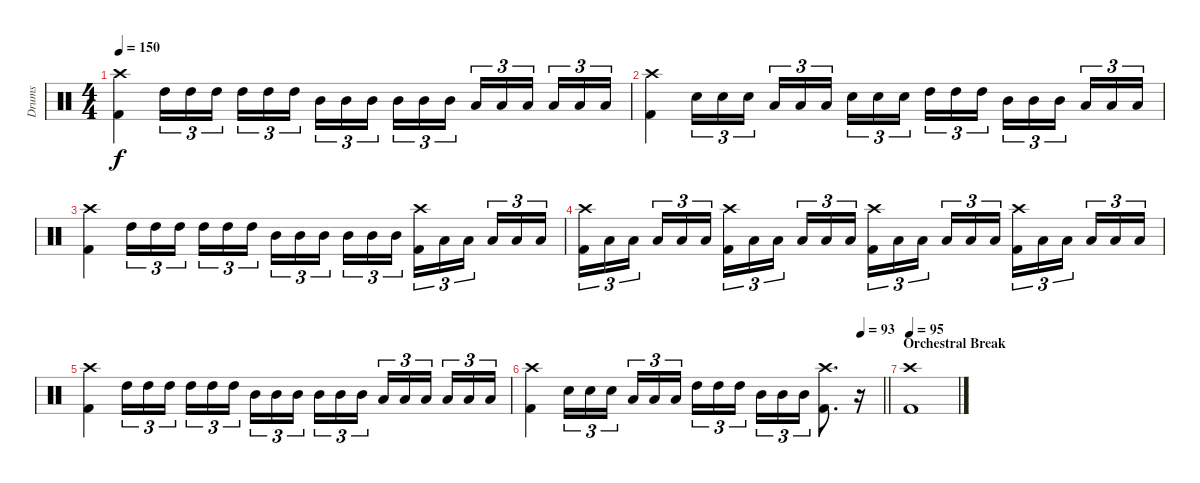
\track ("Drums" "Drums") {instrument percussion}
\staff {score}
\articulation defaults
\ts (4 4)
\tempo 150
\clef neutral
\ks c
("Crash high (hit)" "Kick (hit) 2").4{dy f} "High Tom (hit)".16{tu (3 2)} "High Tom (hit)".16{tu (3 2)} "High Tom (hit)".16{tu (3 2) beam splitsecondary} "High Tom (hit)".16{tu (3 2)} "High Tom (hit)".16{tu (3 2)} "High Tom (hit)".16{tu (3 2)} "Mid Tom (hit)".16{tu (3 2)} "Mid Tom (hit)".16{tu (3 2)} "Mid Tom (hit)".16{tu (3 2) beam splitsecondary} "Mid Tom (hit)".16{tu (3 2)} "Mid Tom (hit)".16{tu (3 2)} "Mid Tom (hit)".16{tu (3 2)} "Low Floor Tom (hit)".16{tu (3 2)} "Low Floor Tom (hit)".16{tu (3 2)} "Low Floor Tom (hit)".16{tu (3 2) beam splitsecondary} "Low Floor Tom (hit)".16{tu (3 2)} "Low Floor Tom (hit)".16{tu (3 2)} "Low Floor Tom (hit)".16{tu (3 2)} |
("Crash high (hit)" "Kick (hit) 2").4 "Electric Snare (hit)".16{tu (3 2)} "Electric Snare (hit)".16{tu (3 2)} "Electric Snare (hit)".16{tu (3 2) beam splitsecondary} "Low Tom (hit)".16{tu (3 2)} "Low Tom (hit)".16{tu (3 2)} "Low Tom (hit)".16{tu (3 2)} "Electric Snare (hit)".16{tu (3 2)} "Electric Snare (hit)".16{tu (3 2)} "Electric Snare (hit)".16{tu (3 2) beam splitsecondary} "High Tom (hit)".16{tu (3 2)} "High Tom (hit)".16{tu (3 2)} "High Tom (hit)".16{tu (3 2)} "Mid Tom (hit)".16{tu (3 2)} "Mid Tom (hit)".16{tu (3 2)} "Mid Tom (hit)".16{tu (3 2) beam splitsecondary} "Low Tom (hit)".16{tu (3 2)} "Low Tom (hit)".16{tu (3 2)} "Low Tom (hit)".16{tu (3 2)} |
("Crash high (hit)" "Kick (hit) 2").4 "High Tom (hit)".16{tu (3 2)} "High Tom (hit)".16{tu (3 2)} "High Tom (hit)".16{tu (3 2) beam splitsecondary} "High Tom (hit)".16{tu (3 2)} "High Tom (hit)".16{tu (3 2)} "High Tom (hit)".16{tu (3 2)} "Mid Tom (hit)".16{tu (3 2)} "Mid Tom (hit)".16{tu (3 2)} "Mid Tom (hit)".16{tu (3 2) beam splitsecondary} "Mid Tom (hit)".16{tu (3 2)} "Mid Tom (hit)".16{tu (3 2)} "Mid Tom (hit)".16{tu (3 2)} ("Crash high (hit)" "Kick (hit) 2").16{tu (3 2)} "Low Floor Tom (hit)".16{tu (3 2)} "Low Floor Tom (hit)".16{tu (3 2) beam splitsecondary} "Low Floor Tom (hit)".16{tu (3 2)} "Low Floor Tom (hit)".16{tu (3 2)} "Low Floor Tom (hit)".16{tu (3 2)} |
("Crash high (hit)" "Kick (hit) 2").16{tu (3 2)} "Low Floor Tom (hit)".16{tu (3 2)} "Low Floor Tom (hit)".16{tu (3 2) beam splitsecondary} "Low Floor Tom (hit)".16{tu (3 2)} "Low Floor Tom (hit)".16{tu (3 2)} "Low Floor Tom (hit)".16{tu (3 2)} ("Crash high (hit)" "Kick (hit) 2").16{tu (3 2)} "Low Floor Tom (hit)".16{tu (3 2)} "Low Floor Tom (hit)".16{tu (3 2) beam splitsecondary} "Low Floor Tom (hit)".16{tu (3 2)} "Low Floor Tom (hit)".16{tu (3 2)} "Low Floor Tom (hit)".16{tu (3 2)} ("Crash high (hit)" "Kick (hit) 2").16{tu (3 2)} "Low Floor Tom (hit)".16{tu (3 2)} "Low Floor Tom (hit)".16{tu (3 2) beam splitsecondary} "Low Floor Tom (hit)".16{tu (3 2)} "Low Floor Tom (hit)".16{tu (3 2)} "Low Floor Tom (hit)".16{tu (3 2)} ("Crash high (hit)" "Kick (hit) 2").16{tu (3 2)} "Low Floor Tom (hit)".16{tu (3 2)} "Low Floor Tom (hit)".16{tu (3 2) beam splitsecondary} "Low Floor Tom (hit)".16{tu (3 2)} "Low Floor Tom (hit)".16{tu (3 2)} "Low Floor Tom (hit)".16{tu (3 2)} |
("Crash high (hit)" "Kick (hit) 2").4 "High Tom (hit)".16{tu (3 2)} "High Tom (hit)".16{tu (3 2)} "High Tom (hit)".16{tu (3 2) beam splitsecondary} "High Tom (hit)".16{tu (3 2)} "High Tom (hit)".16{tu (3 2)} "High Tom (hit)".16{tu (3 2)} "Mid Tom (hit)".16{tu (3 2)} "Mid Tom (hit)".16{tu (3 2)} "Mid Tom (hit)".16{tu (3 2) beam splitsecondary} "Mid Tom (hit)".16{tu (3 2)} "Mid Tom (hit)".16{tu (3 2)} "Mid Tom (hit)".16{tu (3 2)} "Low Floor Tom (hit)".16{tu (3 2)} "Low Floor Tom (hit)".16{tu (3 2)} "Low Floor Tom (hit)".16{tu (3 2) beam splitsecondary} "Low Floor Tom (hit)".16{tu (3 2)} "Low Floor Tom (hit)".16{tu (3 2)} "Low Floor Tom (hit)".16{tu (3 2)} |
\tempo (93 0.9375)
\barLineRight lightlight
("Crash high (hit)" "Kick (hit) 2").4 "Electric Snare (hit)".16{tu (3 2)} "Electric Snare (hit)".16{tu (3 2)} "Electric Snare (hit)".16{tu (3 2) beam splitsecondary} "Low Tom (hit)".16{tu (3 2)} "Low Tom (hit)".16{tu (3 2)} "Low Tom (hit)".16{tu (3 2)} "High Tom (hit)".16{tu (3 2)} "High Tom (hit)".16{tu (3 2)} "High Tom (hit)".16{tu (3 2) beam splitsecondary} "Mid Tom (hit)".16{tu (3 2)} "Mid Tom (hit)".16{tu (3 2)} "Mid Tom (hit)".16{tu (3 2)} ("Crash high (hit)" "Kick (hit) 2").8{d} r.16 |
\section ("" "Orchestral Break")
\tempo 95
("Crash high (hit)" "Kick (hit) 2").1
